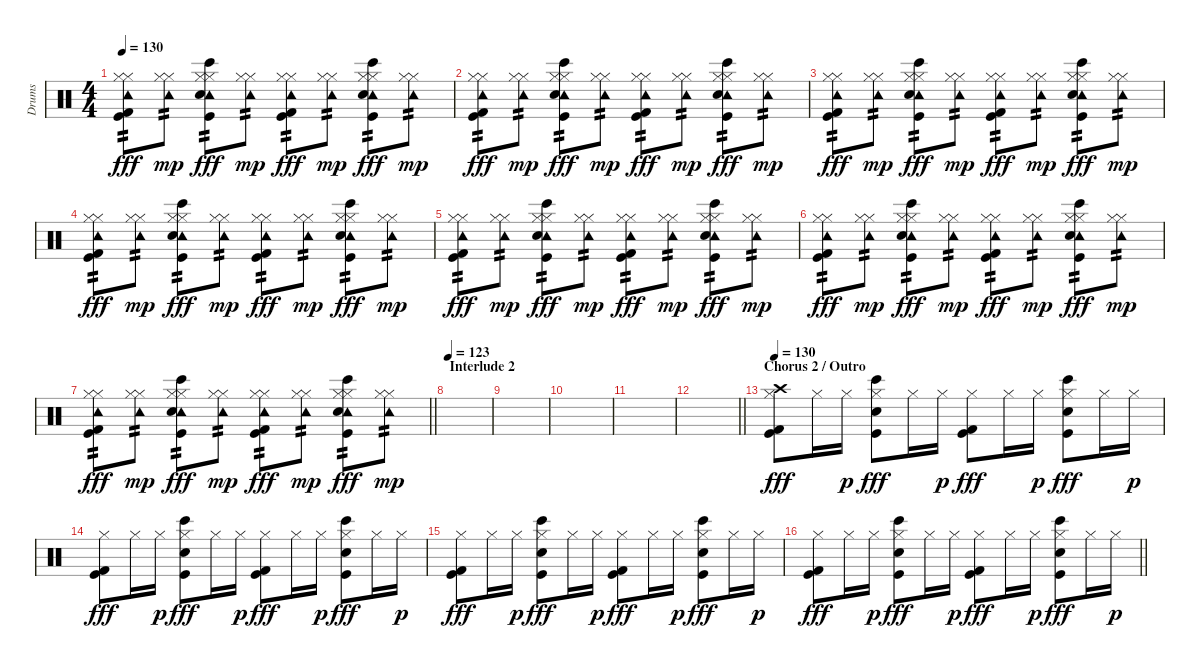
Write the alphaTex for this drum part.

\track ("Drums" "Drums") {instrument percussion}
\staff {score}
\articulation defaults
\ts (4 4)
\tempo 130
\clef neutral
\ks c
("Tambourine (hit)" "Hi-Hat (closed)" "Hi-Hat (closed)" "Kick (hit) 2" "Kick (hit)").8{tp 2 dy fff} ("Tambourine (hit)" "Hi-Hat (closed)" "Hi-Hat (closed)").8{tp 2 dy mp} ("Tambourine (hit)" "Hi-Hat (closed)" "Bongo High (hit)" "Hi-Hat (closed)" "Snare (hit) 2" "Kick (hit)").8{tp 2 dy fff} ("Tambourine (hit)" "Hi-Hat (closed)" "Hi-Hat (closed)").8{tp 2 dy mp} ("Tambourine (hit)" "Hi-Hat (closed)" "Hi-Hat (closed)" "Kick (hit) 2" "Kick (hit)").8{tp 2 dy fff} ("Tambourine (hit)" "Hi-Hat (closed)" "Hi-Hat (closed)").8{tp 2 dy mp} ("Tambourine (hit)" "Hi-Hat (closed)" "Bongo High (hit)" "Hi-Hat (closed)" "Snare (hit) 2" "Kick (hit)").8{tp 2 dy fff} ("Tambourine (hit)" "Hi-Hat (closed)" "Hi-Hat (closed)").8{tp 2 dy mp} |
("Tambourine (hit)" "Hi-Hat (closed)" "Hi-Hat (closed)" "Kick (hit) 2" "Kick (hit)").8{tp 2 dy fff} ("Tambourine (hit)" "Hi-Hat (closed)" "Hi-Hat (closed)").8{tp 2 dy mp} ("Tambourine (hit)" "Hi-Hat (closed)" "Bongo High (hit)" "Hi-Hat (closed)" "Snare (hit) 2" "Kick (hit)").8{tp 2 dy fff} ("Tambourine (hit)" "Hi-Hat (closed)" "Hi-Hat (closed)").8{tp 2 dy mp} ("Tambourine (hit)" "Hi-Hat (closed)" "Hi-Hat (closed)" "Kick (hit) 2" "Kick (hit)").8{tp 2 dy fff} ("Tambourine (hit)" "Hi-Hat (closed)" "Hi-Hat (closed)").8{tp 2 dy mp} ("Tambourine (hit)" "Hi-Hat (closed)" "Bongo High (hit)" "Hi-Hat (closed)" "Snare (hit) 2" "Kick (hit)").8{tp 2 dy fff} ("Tambourine (hit)" "Hi-Hat (closed)" "Hi-Hat (closed)").8{tp 2 dy mp} |
("Tambourine (hit)" "Hi-Hat (closed)" "Hi-Hat (closed)" "Kick (hit) 2" "Kick (hit)").8{tp 2 dy fff} ("Tambourine (hit)" "Hi-Hat (closed)" "Hi-Hat (closed)").8{tp 2 dy mp} ("Tambourine (hit)" "Hi-Hat (closed)" "Bongo High (hit)" "Hi-Hat (closed)" "Snare (hit) 2" "Kick (hit)").8{tp 2 dy fff} ("Tambourine (hit)" "Hi-Hat (closed)" "Hi-Hat (closed)").8{tp 2 dy mp} ("Tambourine (hit)" "Hi-Hat (closed)" "Hi-Hat (closed)" "Kick (hit) 2" "Kick (hit)").8{tp 2 dy fff} ("Tambourine (hit)" "Hi-Hat (closed)" "Hi-Hat (closed)").8{tp 2 dy mp} ("Tambourine (hit)" "Hi-Hat (closed)" "Bongo High (hit)" "Hi-Hat (closed)" "Snare (hit) 2" "Kick (hit)").8{tp 2 dy fff} ("Tambourine (hit)" "Hi-Hat (closed)" "Hi-Hat (closed)").8{tp 2 dy mp} |
("Tambourine (hit)" "Hi-Hat (closed)" "Hi-Hat (closed)" "Kick (hit) 2" "Kick (hit)").8{tp 2 dy fff} ("Tambourine (hit)" "Hi-Hat (closed)" "Hi-Hat (closed)").8{tp 2 dy mp} ("Tambourine (hit)" "Hi-Hat (closed)" "Bongo High (hit)" "Hi-Hat (closed)" "Snare (hit) 2" "Kick (hit)").8{tp 2 dy fff} ("Tambourine (hit)" "Hi-Hat (closed)" "Hi-Hat (closed)").8{tp 2 dy mp} ("Tambourine (hit)" "Hi-Hat (closed)" "Hi-Hat (closed)" "Kick (hit) 2" "Kick (hit)").8{tp 2 dy fff} ("Tambourine (hit)" "Hi-Hat (closed)" "Hi-Hat (closed)").8{tp 2 dy mp} ("Tambourine (hit)" "Hi-Hat (closed)" "Bongo High (hit)" "Hi-Hat (closed)" "Snare (hit) 2" "Kick (hit)").8{tp 2 dy fff} ("Tambourine (hit)" "Hi-Hat (closed)" "Hi-Hat (closed)").8{tp 2 dy mp} |
("Tambourine (hit)" "Hi-Hat (closed)" "Hi-Hat (closed)" "Kick (hit) 2" "Kick (hit)").8{tp 2 dy fff} ("Tambourine (hit)" "Hi-Hat (closed)" "Hi-Hat (closed)").8{tp 2 dy mp} ("Tambourine (hit)" "Hi-Hat (closed)" "Bongo High (hit)" "Hi-Hat (closed)" "Snare (hit) 2" "Kick (hit)").8{tp 2 dy fff} ("Tambourine (hit)" "Hi-Hat (closed)" "Hi-Hat (closed)").8{tp 2 dy mp} ("Tambourine (hit)" "Hi-Hat (closed)" "Hi-Hat (closed)" "Kick (hit) 2" "Kick (hit)").8{tp 2 dy fff} ("Tambourine (hit)" "Hi-Hat (closed)" "Hi-Hat (closed)").8{tp 2 dy mp} ("Tambourine (hit)" "Hi-Hat (closed)" "Bongo High (hit)" "Hi-Hat (closed)" "Snare (hit) 2" "Kick (hit)").8{tp 2 dy fff} ("Tambourine (hit)" "Hi-Hat (closed)" "Hi-Hat (closed)").8{tp 2 dy mp} |
("Tambourine (hit)" "Hi-Hat (closed)" "Hi-Hat (closed)" "Kick (hit) 2" "Kick (hit)").8{tp 2 dy fff} ("Tambourine (hit)" "Hi-Hat (closed)" "Hi-Hat (closed)").8{tp 2 dy mp} ("Tambourine (hit)" "Hi-Hat (closed)" "Bongo High (hit)" "Hi-Hat (closed)" "Snare (hit) 2" "Kick (hit)").8{tp 2 dy fff} ("Tambourine (hit)" "Hi-Hat (closed)" "Hi-Hat (closed)").8{tp 2 dy mp} ("Tambourine (hit)" "Hi-Hat (closed)" "Hi-Hat (closed)" "Kick (hit) 2" "Kick (hit)").8{tp 2 dy fff} ("Tambourine (hit)" "Hi-Hat (closed)" "Hi-Hat (closed)").8{tp 2 dy mp} ("Tambourine (hit)" "Hi-Hat (closed)" "Bongo High (hit)" "Hi-Hat (closed)" "Snare (hit) 2" "Kick (hit)").8{tp 2 dy fff} ("Tambourine (hit)" "Hi-Hat (closed)" "Hi-Hat (closed)").8{tp 2 dy mp} |
\barLineRight lightlight
("Tambourine (hit)" "Hi-Hat (closed)" "Hi-Hat (closed)" "Kick (hit) 2" "Kick (hit)").8{tp 2 dy fff} ("Tambourine (hit)" "Hi-Hat (closed)" "Hi-Hat (closed)").8{tp 2 dy mp} ("Tambourine (hit)" "Hi-Hat (closed)" "Bongo High (hit)" "Hi-Hat (closed)" "Snare (hit) 2" "Kick (hit)").8{tp 2 dy fff} ("Tambourine (hit)" "Hi-Hat (closed)" "Hi-Hat (closed)").8{tp 2 dy mp} ("Tambourine (hit)" "Hi-Hat (closed)" "Hi-Hat (closed)" "Kick (hit) 2" "Kick (hit)").8{tp 2 dy fff} ("Tambourine (hit)" "Hi-Hat (closed)" "Hi-Hat (closed)").8{tp 2 dy mp} ("Tambourine (hit)" "Hi-Hat (closed)" "Bongo High (hit)" "Hi-Hat (closed)" "Snare (hit) 2" "Kick (hit)").8{tp 2 dy fff} ("Tambourine (hit)" "Hi-Hat (closed)" "Hi-Hat (closed)").8{tp 2 dy mp} |
\section ("" "Interlude 2")
\tempo 123
|
|
|
|
\barLineRight lightlight
|
\section ("" "Chorus 2 / Outro")
\tempo 130
("Crash high (hit)" "Hi-Hat (closed)" "Kick (hit) 2" "Kick (hit)").8{dy fff} "Hi-Hat (closed)".16 "Hi-Hat (closed)".16{dy p} ("Bongo High (hit)" "Hi-Hat (closed)" "Snare (hit) 2" "Kick (hit)").8{dy fff} "Hi-Hat (closed)".16 "Hi-Hat (closed)".16{dy p} ("Hi-Hat (closed)" "Kick (hit) 2" "Kick (hit)").8{dy fff} "Hi-Hat (closed)".16 "Hi-Hat (closed)".16{dy p} ("Bongo High (hit)" "Hi-Hat (closed)" "Snare (hit) 2" "Kick (hit)").8{dy fff} "Hi-Hat (closed)".16 "Hi-Hat (closed)".16{dy p} |
("Hi-Hat (closed)" "Kick (hit) 2" "Kick (hit)").8{dy fff} "Hi-Hat (closed)".16 "Hi-Hat (closed)".16{dy p} ("Bongo High (hit)" "Hi-Hat (closed)" "Snare (hit) 2" "Kick (hit)").8{dy fff} "Hi-Hat (closed)".16 "Hi-Hat (closed)".16{dy p} ("Hi-Hat (closed)" "Kick (hit) 2" "Kick (hit)").8{dy fff} "Hi-Hat (closed)".16 "Hi-Hat (closed)".16{dy p} ("Bongo High (hit)" "Hi-Hat (closed)" "Snare (hit) 2" "Kick (hit)").8{dy fff} "Hi-Hat (closed)".16 "Hi-Hat (closed)".16{dy p} |
("Hi-Hat (closed)" "Kick (hit) 2" "Kick (hit)").8{dy fff} "Hi-Hat (closed)".16 "Hi-Hat (closed)".16{dy p} ("Bongo High (hit)" "Hi-Hat (closed)" "Snare (hit) 2" "Kick (hit)").8{dy fff} "Hi-Hat (closed)".16 "Hi-Hat (closed)".16{dy p} ("Hi-Hat (closed)" "Kick (hit) 2" "Kick (hit)").8{dy fff} "Hi-Hat (closed)".16 "Hi-Hat (closed)".16{dy p} ("Bongo High (hit)" "Hi-Hat (closed)" "Snare (hit) 2" "Kick (hit)").8{dy fff} "Hi-Hat (closed)".16 "Hi-Hat (closed)".16{dy p} |
\barLineRight lightlight
("Hi-Hat (closed)" "Kick (hit) 2" "Kick (hit)").8{dy fff} "Hi-Hat (closed)".16 "Hi-Hat (closed)".16{dy p} ("Bongo High (hit)" "Hi-Hat (closed)" "Snare (hit) 2" "Kick (hit)").8{dy fff} "Hi-Hat (closed)".16 "Hi-Hat (closed)".16{dy p} ("Hi-Hat (closed)" "Kick (hit) 2" "Kick (hit)").8{dy fff} "Hi-Hat (closed)".16 "Hi-Hat (closed)".16{dy p} ("Bongo High (hit)" "Hi-Hat (closed)" "Snare (hit) 2" "Kick (hit)").8{dy fff} "Hi-Hat (closed)".16 "Hi-Hat (closed)".16{dy p}
